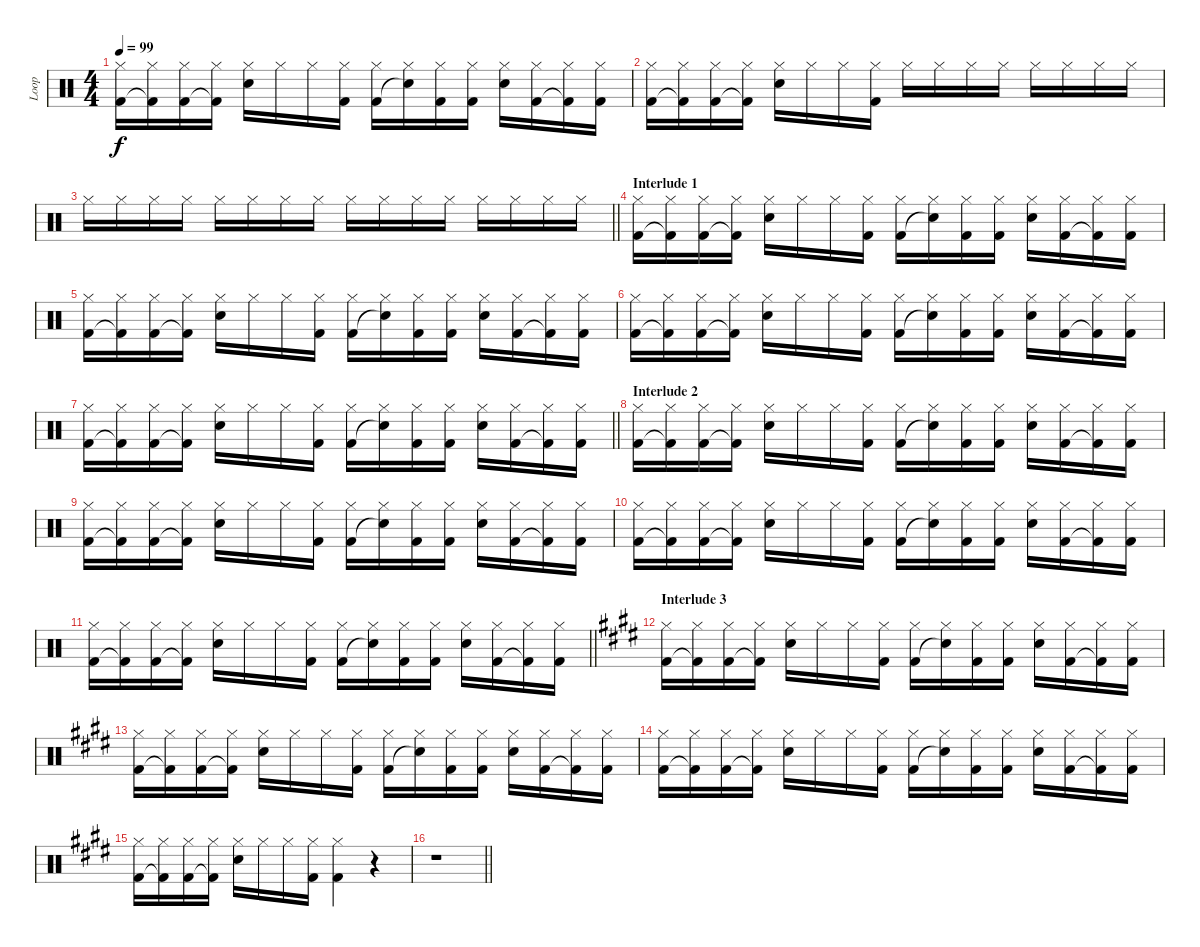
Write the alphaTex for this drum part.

\track ("Loop" "Loop") {instrument percussion}
\staff {score}
\articulation defaults
\ts (4 4)
\tempo 99
\clef neutral
\ks c
("Hi-Hat (closed)" "Kick (hit) 2").16{dy f} ("Hi-Hat (closed)" "Kick (hit) 2"{t}).16 ("Hi-Hat (closed)" "Kick (hit) 2").16 ("Hi-Hat (closed)" "Kick (hit) 2"{t}).16 ("Hi-Hat (closed)" "Electric Snare (hit)").16 "Hi-Hat (closed)".16 "Hi-Hat (closed)".16 ("Hi-Hat (closed)" "Kick (hit) 2").16 ("Hi-Hat (closed)" "Kick (hit) 2").16 ("Hi-Hat (closed)" "Snare (hit)"{t}).16 ("Hi-Hat (closed)" "Kick (hit) 2").16 ("Hi-Hat (closed)" "Kick (hit) 2").16 ("Hi-Hat (closed)" "Electric Snare (hit)").16 ("Hi-Hat (closed)" "Kick (hit) 2").16 ("Hi-Hat (closed)" "Kick (hit) 2"{t}).16 ("Hi-Hat (closed)" "Kick (hit) 2").16 |
("Hi-Hat (closed)" "Kick (hit) 2").16 ("Hi-Hat (closed)" "Kick (hit) 2"{t}).16 ("Hi-Hat (closed)" "Kick (hit) 2").16 ("Hi-Hat (closed)" "Kick (hit) 2"{t}).16 ("Hi-Hat (closed)" "Electric Snare (hit)").16 "Hi-Hat (closed)".16 "Hi-Hat (closed)".16 ("Hi-Hat (closed)" "Kick (hit) 2").16 "Hi-Hat (closed)".16 "Hi-Hat (closed)".16 "Hi-Hat (closed)".16 "Hi-Hat (closed)".16 "Hi-Hat (closed)".16 "Hi-Hat (closed)".16 "Hi-Hat (closed)".16 "Hi-Hat (closed)".16 |
\barLineRight lightlight "Hi-Hat (closed)".16 "Hi-Hat (closed)".16 "Hi-Hat (closed)".16 "Hi-Hat (closed)".16 "Hi-Hat (closed)".16 "Hi-Hat (closed)".16 "Hi-Hat (closed)".16 "Hi-Hat (closed)".16 "Hi-Hat (closed)".16 "Hi-Hat (closed)".16 "Hi-Hat (closed)".16 "Hi-Hat (closed)".16 "Hi-Hat (closed)".16 "Hi-Hat (closed)".16 "Hi-Hat (closed)".16 "Hi-Hat (closed)".16
|
\section ("" "Interlude 1")
("Hi-Hat (closed)" "Kick (hit) 2").16 ("Hi-Hat (closed)" "Kick (hit) 2"{t}).16 ("Hi-Hat (closed)" "Kick (hit) 2").16 ("Hi-Hat (closed)" "Kick (hit) 2"{t}).16 ("Hi-Hat (closed)" "Electric Snare (hit)").16 "Hi-Hat (closed)".16 "Hi-Hat (closed)".16 ("Hi-Hat (closed)" "Kick (hit) 2").16 ("Hi-Hat (closed)" "Kick (hit) 2").16 ("Hi-Hat (closed)" "Snare (hit)"{t}).16 ("Hi-Hat (closed)" "Kick (hit) 2").16 ("Hi-Hat (closed)" "Kick (hit) 2").16 ("Hi-Hat (closed)" "Electric Snare (hit)").16 ("Hi-Hat (closed)" "Kick (hit) 2").16 ("Hi-Hat (closed)" "Kick (hit) 2"{t}).16 ("Hi-Hat (closed)" "Kick (hit) 2").16 |
("Hi-Hat (closed)" "Kick (hit) 2").16 ("Hi-Hat (closed)" "Kick (hit) 2"{t}).16 ("Hi-Hat (closed)" "Kick (hit) 2").16 ("Hi-Hat (closed)" "Kick (hit) 2"{t}).16 ("Hi-Hat (closed)" "Electric Snare (hit)").16 "Hi-Hat (closed)".16 "Hi-Hat (closed)".16 ("Hi-Hat (closed)" "Kick (hit) 2").16 ("Hi-Hat (closed)" "Kick (hit) 2").16 ("Hi-Hat (closed)" "Snare (hit)"{t}).16 ("Hi-Hat (closed)" "Kick (hit) 2").16 ("Hi-Hat (closed)" "Kick (hit) 2").16 ("Hi-Hat (closed)" "Electric Snare (hit)").16 ("Hi-Hat (closed)" "Kick (hit) 2").16 ("Hi-Hat (closed)" "Kick (hit) 2"{t}).16 ("Hi-Hat (closed)" "Kick (hit) 2").16 |
("Hi-Hat (closed)" "Kick (hit) 2").16 ("Hi-Hat (closed)" "Kick (hit) 2"{t}).16 ("Hi-Hat (closed)" "Kick (hit) 2").16 ("Hi-Hat (closed)" "Kick (hit) 2"{t}).16 ("Hi-Hat (closed)" "Electric Snare (hit)").16 "Hi-Hat (closed)".16 "Hi-Hat (closed)".16 ("Hi-Hat (closed)" "Kick (hit) 2").16 ("Hi-Hat (closed)" "Kick (hit) 2").16 ("Hi-Hat (closed)" "Snare (hit)"{t}).16 ("Hi-Hat (closed)" "Kick (hit) 2").16 ("Hi-Hat (closed)" "Kick (hit) 2").16 ("Hi-Hat (closed)" "Electric Snare (hit)").16 ("Hi-Hat (closed)" "Kick (hit) 2").16 ("Hi-Hat (closed)" "Kick (hit) 2"{t}).16 ("Hi-Hat (closed)" "Kick (hit) 2").16 |
\barLineRight lightlight
("Hi-Hat (closed)" "Kick (hit) 2").16 ("Hi-Hat (closed)" "Kick (hit) 2"{t}).16 ("Hi-Hat (closed)" "Kick (hit) 2").16 ("Hi-Hat (closed)" "Kick (hit) 2"{t}).16 ("Hi-Hat (closed)" "Electric Snare (hit)").16 "Hi-Hat (closed)".16 "Hi-Hat (closed)".16 ("Hi-Hat (closed)" "Kick (hit) 2").16 ("Hi-Hat (closed)" "Kick (hit) 2").16 ("Hi-Hat (closed)" "Snare (hit)"{t}).16 ("Hi-Hat (closed)" "Kick (hit) 2").16 ("Hi-Hat (closed)" "Kick (hit) 2").16 ("Hi-Hat (closed)" "Electric Snare (hit)").16 ("Hi-Hat (closed)" "Kick (hit) 2").16 ("Hi-Hat (closed)" "Kick (hit) 2"{t}).16 ("Hi-Hat (closed)" "Kick (hit) 2").16 |
\section ("" "Interlude 2")
("Hi-Hat (closed)" "Kick (hit) 2").16 ("Hi-Hat (closed)" "Kick (hit) 2"{t}).16 ("Hi-Hat (closed)" "Kick (hit) 2").16 ("Hi-Hat (closed)" "Kick (hit) 2"{t}).16 ("Hi-Hat (closed)" "Electric Snare (hit)").16 "Hi-Hat (closed)".16 "Hi-Hat (closed)".16 ("Hi-Hat (closed)" "Kick (hit) 2").16 ("Hi-Hat (closed)" "Kick (hit) 2").16 ("Hi-Hat (closed)" "Snare (hit)"{t}).16 ("Hi-Hat (closed)" "Kick (hit) 2").16 ("Hi-Hat (closed)" "Kick (hit) 2").16 ("Hi-Hat (closed)" "Electric Snare (hit)").16 ("Hi-Hat (closed)" "Kick (hit) 2").16 ("Hi-Hat (closed)" "Kick (hit) 2"{t}).16 ("Hi-Hat (closed)" "Kick (hit) 2").16 |
("Hi-Hat (closed)" "Kick (hit) 2").16 ("Hi-Hat (closed)" "Kick (hit) 2"{t}).16 ("Hi-Hat (closed)" "Kick (hit) 2").16 ("Hi-Hat (closed)" "Kick (hit) 2"{t}).16 ("Hi-Hat (closed)" "Electric Snare (hit)").16 "Hi-Hat (closed)".16 "Hi-Hat (closed)".16 ("Hi-Hat (closed)" "Kick (hit) 2").16 ("Hi-Hat (closed)" "Kick (hit) 2").16 ("Hi-Hat (closed)" "Snare (hit)"{t}).16 ("Hi-Hat (closed)" "Kick (hit) 2").16 ("Hi-Hat (closed)" "Kick (hit) 2").16 ("Hi-Hat (closed)" "Electric Snare (hit)").16 ("Hi-Hat (closed)" "Kick (hit) 2").16 ("Hi-Hat (closed)" "Kick (hit) 2"{t}).16 ("Hi-Hat (closed)" "Kick (hit) 2").16 |
("Hi-Hat (closed)" "Kick (hit) 2").16 ("Hi-Hat (closed)" "Kick (hit) 2"{t}).16 ("Hi-Hat (closed)" "Kick (hit) 2").16 ("Hi-Hat (closed)" "Kick (hit) 2"{t}).16 ("Hi-Hat (closed)" "Electric Snare (hit)").16 "Hi-Hat (closed)".16 "Hi-Hat (closed)".16 ("Hi-Hat (closed)" "Kick (hit) 2").16 ("Hi-Hat (closed)" "Kick (hit) 2").16 ("Hi-Hat (closed)" "Snare (hit)"{t}).16 ("Hi-Hat (closed)" "Kick (hit) 2").16 ("Hi-Hat (closed)" "Kick (hit) 2").16 ("Hi-Hat (closed)" "Electric Snare (hit)").16 ("Hi-Hat (closed)" "Kick (hit) 2").16 ("Hi-Hat (closed)" "Kick (hit) 2"{t}).16 ("Hi-Hat (closed)" "Kick (hit) 2").16 |
\barLineRight lightlight
("Hi-Hat (closed)" "Kick (hit) 2").16 ("Hi-Hat (closed)" "Kick (hit) 2"{t}).16 ("Hi-Hat (closed)" "Kick (hit) 2").16 ("Hi-Hat (closed)" "Kick (hit) 2"{t}).16 ("Hi-Hat (closed)" "Electric Snare (hit)").16 "Hi-Hat (closed)".16 "Hi-Hat (closed)".16 ("Hi-Hat (closed)" "Kick (hit) 2").16 ("Hi-Hat (closed)" "Kick (hit) 2").16 ("Hi-Hat (closed)" "Snare (hit)"{t}).16 ("Hi-Hat (closed)" "Kick (hit) 2").16 ("Hi-Hat (closed)" "Kick (hit) 2").16 ("Hi-Hat (closed)" "Electric Snare (hit)").16 ("Hi-Hat (closed)" "Kick (hit) 2").16 ("Hi-Hat (closed)" "Kick (hit) 2"{t}).16 ("Hi-Hat (closed)" "Kick (hit) 2").16 |
\section ("" "Interlude 3")
\ks c#minor
("Hi-Hat (closed)" "Kick (hit) 2").16 ("Hi-Hat (closed)" "Kick (hit) 2"{t}).16 ("Hi-Hat (closed)" "Kick (hit) 2").16 ("Hi-Hat (closed)" "Kick (hit) 2"{t}).16 ("Hi-Hat (closed)" "Electric Snare (hit)").16 "Hi-Hat (closed)".16 "Hi-Hat (closed)".16 ("Hi-Hat (closed)" "Kick (hit) 2").16 ("Hi-Hat (closed)" "Kick (hit) 2").16 ("Hi-Hat (closed)" "Snare (hit)"{t}).16 ("Hi-Hat (closed)" "Kick (hit) 2").16 ("Hi-Hat (closed)" "Kick (hit) 2").16 ("Hi-Hat (closed)" "Electric Snare (hit)").16 ("Hi-Hat (closed)" "Kick (hit) 2").16 ("Hi-Hat (closed)" "Kick (hit) 2"{t}).16 ("Hi-Hat (closed)" "Kick (hit) 2").16 |
("Hi-Hat (closed)" "Kick (hit) 2").16 ("Hi-Hat (closed)" "Kick (hit) 2"{t}).16 ("Hi-Hat (closed)" "Kick (hit) 2").16 ("Hi-Hat (closed)" "Kick (hit) 2"{t}).16 ("Hi-Hat (closed)" "Electric Snare (hit)").16 "Hi-Hat (closed)".16 "Hi-Hat (closed)".16 ("Hi-Hat (closed)" "Kick (hit) 2").16 ("Hi-Hat (closed)" "Kick (hit) 2").16 ("Hi-Hat (closed)" "Snare (hit)"{t}).16 ("Hi-Hat (closed)" "Kick (hit) 2").16 ("Hi-Hat (closed)" "Kick (hit) 2").16 ("Hi-Hat (closed)" "Electric Snare (hit)").16 ("Hi-Hat (closed)" "Kick (hit) 2").16 ("Hi-Hat (closed)" "Kick (hit) 2"{t}).16 ("Hi-Hat (closed)" "Kick (hit) 2").16 |
("Hi-Hat (closed)" "Kick (hit) 2").16 ("Hi-Hat (closed)" "Kick (hit) 2"{t}).16 ("Hi-Hat (closed)" "Kick (hit) 2").16 ("Hi-Hat (closed)" "Kick (hit) 2"{t}).16 ("Hi-Hat (closed)" "Electric Snare (hit)").16 "Hi-Hat (closed)".16 "Hi-Hat (closed)".16 ("Hi-Hat (closed)" "Kick (hit) 2").16 ("Hi-Hat (closed)" "Kick (hit) 2").16 ("Hi-Hat (closed)" "Snare (hit)"{t}).16 ("Hi-Hat (closed)" "Kick (hit) 2").16 ("Hi-Hat (closed)" "Kick (hit) 2").16 ("Hi-Hat (closed)" "Electric Snare (hit)").16 ("Hi-Hat (closed)" "Kick (hit) 2").16 ("Hi-Hat (closed)" "Kick (hit) 2"{t}).16 ("Hi-Hat (closed)" "Kick (hit) 2").16 |
("Hi-Hat (closed)" "Kick (hit) 2").16 ("Hi-Hat (closed)" "Kick (hit) 2"{t}).16 ("Hi-Hat (closed)" "Kick (hit) 2").16 ("Hi-Hat (closed)" "Kick (hit) 2"{t}).16 ("Hi-Hat (closed)" "Electric Snare (hit)").16 "Hi-Hat (closed)".16 "Hi-Hat (closed)".16 ("Hi-Hat (closed)" "Kick (hit) 2").16 ("Hi-Hat (closed)" "Kick (hit) 2").4 r.4 |
\barLineRight lightlight
r.1
